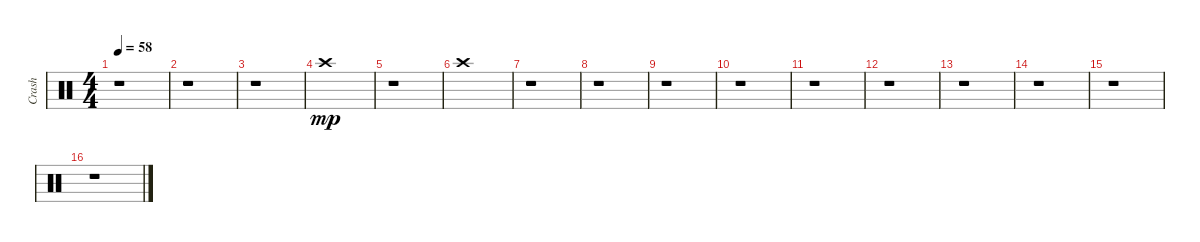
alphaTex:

\track ("Crash" "Crash") {instrument percussion}
\staff {score}
\articulation defaults
\ts (4 4)
\tempo 58
\clef neutral
\ks c
r.1{dy p} |
r.1 |
r.1 |
"Crash high (hit)".1{dy mp} |
r.1 |
"Crash high (hit)".1 |
r.1 |
r.1 |
r.1 |
r.1 |
r.1 |
r.1 |
r.1 |
r.1 |
r.1 |
r.1
